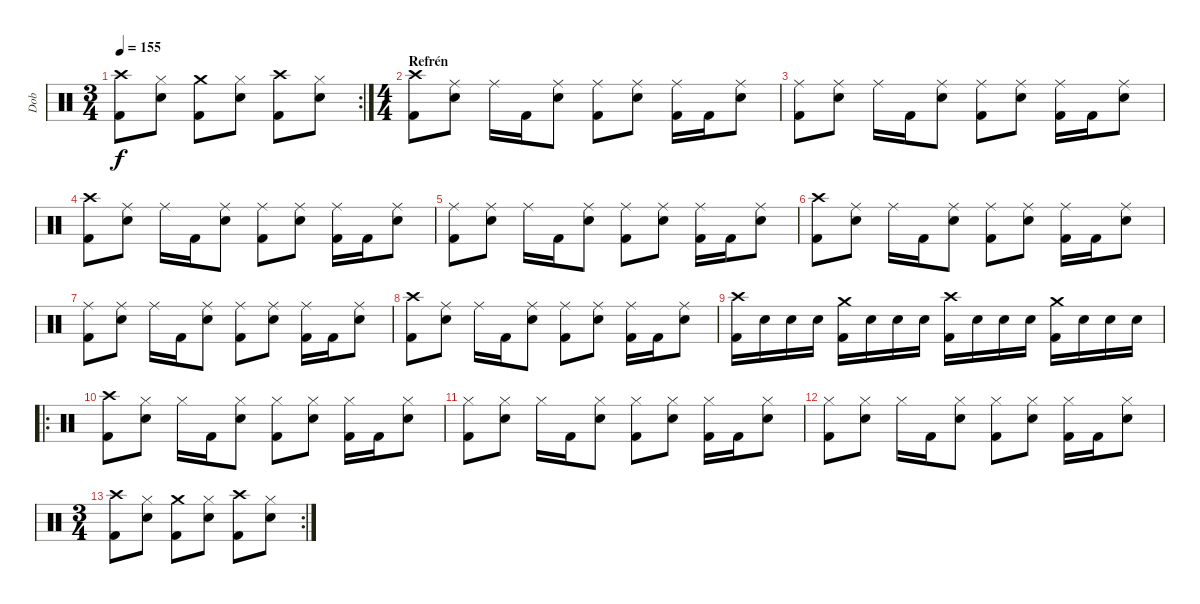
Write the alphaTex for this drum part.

\track ("Dob" "Dob") {instrument percussion}
\staff {score}
\articulation defaults
\rc 2
\ts (3 4)
\tempo 155
\clef neutral
\ks c
("Crash high (hit)" "Kick (hit) 2").8{dy f} ("Hi-Hat (closed)" "Snare (hit) 2").8 ("Crash medium (hit)" "Kick (hit) 2").8 ("Hi-Hat (closed)" "Snare (hit) 2").8 ("Crash high (hit)" "Kick (hit) 2").8 ("Hi-Hat (closed)" "Snare (hit) 2").8 |
\ts (4 4)
\section ("" "Refrén")
("Crash high (hit)" "Kick (hit) 2").8 ("Ride (middle)" "Snare (hit) 2").8 "Ride (middle)".16 "Kick (hit) 2".16 ("Ride (middle)" "Snare (hit) 2").8 ("Ride (middle)" "Kick (hit) 2").8 ("Ride (middle)" "Snare (hit) 2").8 ("Ride (middle)" "Kick (hit) 2").16 "Kick (hit) 2".16 ("Ride (middle)" "Snare (hit) 2").8 |
("Ride (middle)" "Kick (hit) 2").8 ("Ride (middle)" "Snare (hit) 2").8 "Ride (middle)".16 "Kick (hit) 2".16 ("Ride (middle)" "Snare (hit) 2").8 ("Ride (middle)" "Kick (hit) 2").8 ("Ride (middle)" "Snare (hit) 2").8 ("Ride (middle)" "Kick (hit) 2").16 "Kick (hit) 2".16 ("Ride (middle)" "Snare (hit) 2").8 |
("Crash high (hit)" "Kick (hit) 2").8 ("Ride (middle)" "Snare (hit) 2").8 "Ride (middle)".16 "Kick (hit) 2".16 ("Ride (middle)" "Snare (hit) 2").8 ("Ride (middle)" "Kick (hit) 2").8 ("Ride (middle)" "Snare (hit) 2").8 ("Ride (middle)" "Kick (hit) 2").16 "Kick (hit) 2".16 ("Ride (middle)" "Snare (hit) 2").8 |
("Ride (middle)" "Kick (hit) 2").8 ("Ride (middle)" "Snare (hit) 2").8 "Ride (middle)".16 "Kick (hit) 2".16 ("Ride (middle)" "Snare (hit) 2").8 ("Ride (middle)" "Kick (hit) 2").8 ("Ride (middle)" "Snare (hit) 2").8 ("Ride (middle)" "Kick (hit) 2").16 "Kick (hit) 2".16 ("Ride (middle)" "Snare (hit) 2").8 |
("Crash high (hit)" "Kick (hit) 2").8 ("Ride (middle)" "Snare (hit) 2").8 "Ride (middle)".16 "Kick (hit) 2".16 ("Ride (middle)" "Snare (hit) 2").8 ("Ride (middle)" "Kick (hit) 2").8 ("Ride (middle)" "Snare (hit) 2").8 ("Ride (middle)" "Kick (hit) 2").16 "Kick (hit) 2".16 ("Ride (middle)" "Snare (hit) 2").8 |
("Ride (middle)" "Kick (hit) 2").8 ("Ride (middle)" "Snare (hit) 2").8 "Ride (middle)".16 "Kick (hit) 2".16 ("Ride (middle)" "Snare (hit) 2").8 ("Ride (middle)" "Kick (hit) 2").8 ("Ride (middle)" "Snare (hit) 2").8 ("Ride (middle)" "Kick (hit) 2").16 "Kick (hit) 2".16 ("Ride (middle)" "Snare (hit) 2").8 |
("Crash high (hit)" "Kick (hit) 2").8 ("Ride (middle)" "Snare (hit) 2").8 "Ride (middle)".16 "Kick (hit) 2".16 ("Ride (middle)" "Snare (hit) 2").8 ("Ride (middle)" "Kick (hit) 2").8 ("Ride (middle)" "Snare (hit) 2").8 ("Ride (middle)" "Kick (hit) 2").16 "Kick (hit) 2".16 ("Ride (middle)" "Snare (hit) 2").8 |
("Crash high (hit)" "Kick (hit) 2").16 "Snare (hit) 2".16 "Snare (hit) 2".16 "Snare (hit) 2".16 ("Crash medium (hit)" "Kick (hit) 2").16 "Snare (hit) 2".16 "Snare (hit) 2".16 "Snare (hit) 2".16 ("Crash high (hit)" "Kick (hit) 2").16 "Snare (hit) 2".16 "Snare (hit) 2".16 "Snare (hit) 2".16 ("Crash medium (hit)" "Kick (hit) 2").16 "Snare (hit) 2".16 "Snare (hit) 2".16 "Snare (hit) 2".16 |
\ro
("Crash high (hit)" "Kick (hit) 2").8 ("Hi-Hat (closed)" "Snare (hit) 2").8 "Hi-Hat (closed)".16 "Kick (hit) 2".16 ("Hi-Hat (closed)" "Snare (hit) 2").8 ("Hi-Hat (closed)" "Kick (hit) 2").8 ("Hi-Hat (closed)" "Snare (hit) 2").8 ("Hi-Hat (closed)" "Kick (hit) 2").16 "Kick (hit) 2".16 ("Hi-Hat (closed)" "Snare (hit) 2").8 |
("Hi-Hat (closed)" "Kick (hit) 2").8 ("Hi-Hat (closed)" "Snare (hit) 2").8 "Hi-Hat (closed)".16 "Kick (hit) 2".16 ("Hi-Hat (closed)" "Snare (hit) 2").8 ("Hi-Hat (closed)" "Kick (hit) 2").8 ("Hi-Hat (closed)" "Snare (hit) 2").8 ("Hi-Hat (closed)" "Kick (hit) 2").16 "Kick (hit) 2".16 ("Hi-Hat (closed)" "Snare (hit) 2").8 |
("Hi-Hat (closed)" "Kick (hit) 2").8 ("Hi-Hat (closed)" "Snare (hit) 2").8 "Hi-Hat (closed)".16 "Kick (hit) 2".16 ("Hi-Hat (closed)" "Snare (hit) 2").8 ("Hi-Hat (closed)" "Kick (hit) 2").8 ("Hi-Hat (closed)" "Snare (hit) 2").8 ("Hi-Hat (closed)" "Kick (hit) 2").16 "Kick (hit) 2".16 ("Hi-Hat (closed)" "Snare (hit) 2").8 |
\rc 2
\ts (3 4)
("Crash high (hit)" "Kick (hit) 2").8 ("Hi-Hat (closed)" "Snare (hit) 2").8 ("Crash medium (hit)" "Kick (hit) 2").8 ("Hi-Hat (closed)" "Snare (hit) 2").8 ("Crash high (hit)" "Kick (hit) 2").8 ("Hi-Hat (closed)" "Snare (hit) 2").8
